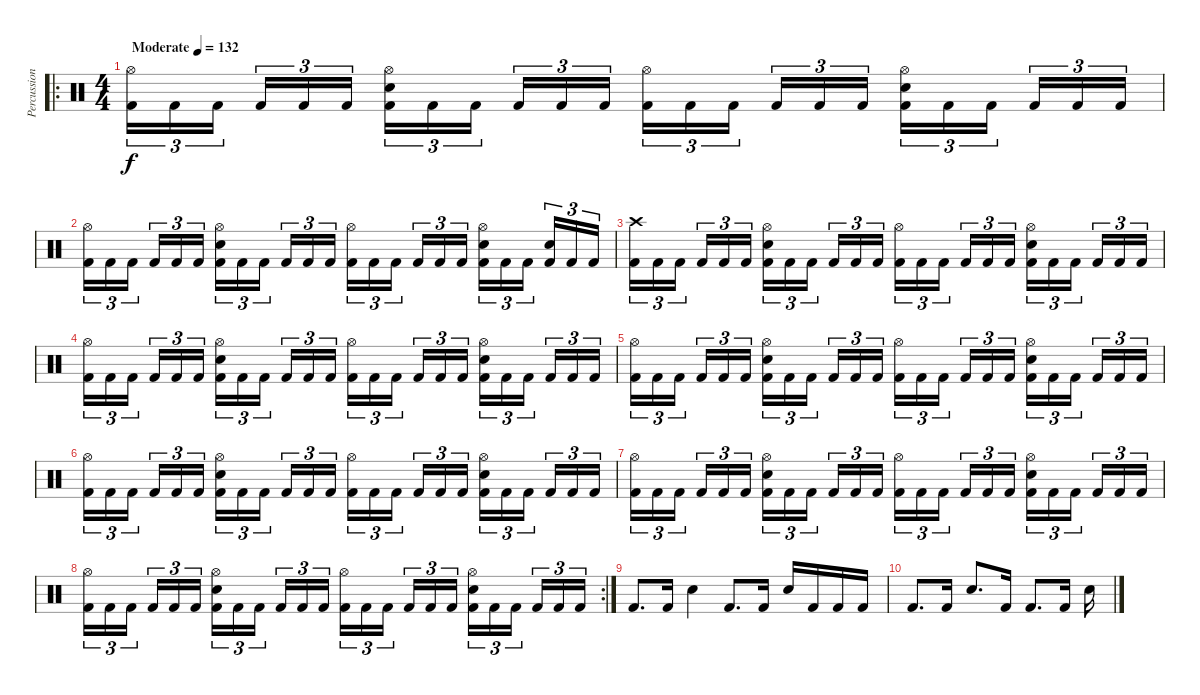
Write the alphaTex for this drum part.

\track ("Percussion" "Percussion") {instrument percussion}
\staff {score}
\articulation defaults
\ro
\ts (4 4)
\tempo (132 "Moderate")
\clef neutral
\ks c
("Hi-Hat (open)" "Kick (hit) 2").16{tu (3 2) dy f} "Kick (hit) 2".16{tu (3 2)} "Kick (hit) 2".16{tu (3 2) beam splitsecondary} "Kick (hit) 2".16{tu (3 2)} "Kick (hit) 2".16{tu (3 2)} "Kick (hit) 2".16{tu (3 2)} ("Hi-Hat (open)" "Electric Snare (hit)" "Kick (hit) 2").16{tu (3 2)} "Kick (hit) 2".16{tu (3 2)} "Kick (hit) 2".16{tu (3 2) beam splitsecondary} "Kick (hit) 2".16{tu (3 2)} "Kick (hit) 2".16{tu (3 2)} "Kick (hit) 2".16{tu (3 2)} ("Hi-Hat (open)" "Kick (hit) 2").16{tu (3 2)} "Kick (hit) 2".16{tu (3 2)} "Kick (hit) 2".16{tu (3 2) beam splitsecondary} "Kick (hit) 2".16{tu (3 2)} "Kick (hit) 2".16{tu (3 2)} "Kick (hit) 2".16{tu (3 2)} ("Hi-Hat (open)" "Electric Snare (hit)" "Kick (hit) 2").16{tu (3 2)} "Kick (hit) 2".16{tu (3 2)} "Kick (hit) 2".16{tu (3 2) beam splitsecondary} "Kick (hit) 2".16{tu (3 2)} "Kick (hit) 2".16{tu (3 2)} "Kick (hit) 2".16{tu (3 2)} |
("Hi-Hat (open)" "Kick (hit) 2").16{tu (3 2)} "Kick (hit) 2".16{tu (3 2)} "Kick (hit) 2".16{tu (3 2) beam splitsecondary} "Kick (hit) 2".16{tu (3 2)} "Kick (hit) 2".16{tu (3 2)} "Kick (hit) 2".16{tu (3 2)} ("Hi-Hat (open)" "Electric Snare (hit)" "Kick (hit) 2").16{tu (3 2)} "Kick (hit) 2".16{tu (3 2)} "Kick (hit) 2".16{tu (3 2) beam splitsecondary} "Kick (hit) 2".16{tu (3 2)} "Kick (hit) 2".16{tu (3 2)} "Kick (hit) 2".16{tu (3 2)} ("Hi-Hat (open)" "Kick (hit) 2").16{tu (3 2)} "Kick (hit) 2".16{tu (3 2)} "Kick (hit) 2".16{tu (3 2) beam splitsecondary} "Kick (hit) 2".16{tu (3 2)} "Kick (hit) 2".16{tu (3 2)} "Kick (hit) 2".16{tu (3 2)} ("Hi-Hat (open)" "Electric Snare (hit)" "Kick (hit) 2").16{tu (3 2)} "Kick (hit) 2".16{tu (3 2)} "Kick (hit) 2".16{tu (3 2) beam splitsecondary} ("Electric Snare (hit)" "Kick (hit) 2").16{tu (3 2)} "Kick (hit) 2".16{tu (3 2)} "Kick (hit) 2".16{tu (3 2)} |
("Crash high (hit)" "Kick (hit) 2").16{tu (3 2)} "Kick (hit) 2".16{tu (3 2)} "Kick (hit) 2".16{tu (3 2) beam splitsecondary} "Kick (hit) 2".16{tu (3 2)} "Kick (hit) 2".16{tu (3 2)} "Kick (hit) 2".16{tu (3 2)} ("Hi-Hat (open)" "Electric Snare (hit)" "Kick (hit) 2").16{tu (3 2)} "Kick (hit) 2".16{tu (3 2)} "Kick (hit) 2".16{tu (3 2) beam splitsecondary} "Kick (hit) 2".16{tu (3 2)} "Kick (hit) 2".16{tu (3 2)} "Kick (hit) 2".16{tu (3 2)} ("Hi-Hat (open)" "Kick (hit) 2").16{tu (3 2)} "Kick (hit) 2".16{tu (3 2)} "Kick (hit) 2".16{tu (3 2) beam splitsecondary} "Kick (hit) 2".16{tu (3 2)} "Kick (hit) 2".16{tu (3 2)} "Kick (hit) 2".16{tu (3 2)} ("Hi-Hat (open)" "Electric Snare (hit)" "Kick (hit) 2").16{tu (3 2)} "Kick (hit) 2".16{tu (3 2)} "Kick (hit) 2".16{tu (3 2) beam splitsecondary} "Kick (hit) 2".16{tu (3 2)} "Kick (hit) 2".16{tu (3 2)} "Kick (hit) 2".16{tu (3 2)} |
("Hi-Hat (open)" "Kick (hit) 2").16{tu (3 2)} "Kick (hit) 2".16{tu (3 2)} "Kick (hit) 2".16{tu (3 2) beam splitsecondary} "Kick (hit) 2".16{tu (3 2)} "Kick (hit) 2".16{tu (3 2)} "Kick (hit) 2".16{tu (3 2)} ("Hi-Hat (open)" "Electric Snare (hit)" "Kick (hit) 2").16{tu (3 2)} "Kick (hit) 2".16{tu (3 2)} "Kick (hit) 2".16{tu (3 2) beam splitsecondary} "Kick (hit) 2".16{tu (3 2)} "Kick (hit) 2".16{tu (3 2)} "Kick (hit) 2".16{tu (3 2)} ("Hi-Hat (open)" "Kick (hit) 2").16{tu (3 2)} "Kick (hit) 2".16{tu (3 2)} "Kick (hit) 2".16{tu (3 2) beam splitsecondary} "Kick (hit) 2".16{tu (3 2)} "Kick (hit) 2".16{tu (3 2)} "Kick (hit) 2".16{tu (3 2)} ("Hi-Hat (open)" "Electric Snare (hit)" "Kick (hit) 2").16{tu (3 2)} "Kick (hit) 2".16{tu (3 2)} "Kick (hit) 2".16{tu (3 2) beam splitsecondary} "Kick (hit) 2".16{tu (3 2)} "Kick (hit) 2".16{tu (3 2)} "Kick (hit) 2".16{tu (3 2)} |
("Hi-Hat (open)" "Kick (hit) 2").16{tu (3 2)} "Kick (hit) 2".16{tu (3 2)} "Kick (hit) 2".16{tu (3 2) beam splitsecondary} "Kick (hit) 2".16{tu (3 2)} "Kick (hit) 2".16{tu (3 2)} "Kick (hit) 2".16{tu (3 2)} ("Hi-Hat (open)" "Electric Snare (hit)" "Kick (hit) 2").16{tu (3 2)} "Kick (hit) 2".16{tu (3 2)} "Kick (hit) 2".16{tu (3 2) beam splitsecondary} "Kick (hit) 2".16{tu (3 2)} "Kick (hit) 2".16{tu (3 2)} "Kick (hit) 2".16{tu (3 2)} ("Hi-Hat (open)" "Kick (hit) 2").16{tu (3 2)} "Kick (hit) 2".16{tu (3 2)} "Kick (hit) 2".16{tu (3 2) beam splitsecondary} "Kick (hit) 2".16{tu (3 2)} "Kick (hit) 2".16{tu (3 2)} "Kick (hit) 2".16{tu (3 2)} ("Hi-Hat (open)" "Electric Snare (hit)" "Kick (hit) 2").16{tu (3 2)} "Kick (hit) 2".16{tu (3 2)} "Kick (hit) 2".16{tu (3 2) beam splitsecondary} "Kick (hit) 2".16{tu (3 2)} "Kick (hit) 2".16{tu (3 2)} "Kick (hit) 2".16{tu (3 2)} |
("Hi-Hat (open)" "Kick (hit) 2").16{tu (3 2)} "Kick (hit) 2".16{tu (3 2)} "Kick (hit) 2".16{tu (3 2) beam splitsecondary} "Kick (hit) 2".16{tu (3 2)} "Kick (hit) 2".16{tu (3 2)} "Kick (hit) 2".16{tu (3 2)} ("Hi-Hat (open)" "Electric Snare (hit)" "Kick (hit) 2").16{tu (3 2)} "Kick (hit) 2".16{tu (3 2)} "Kick (hit) 2".16{tu (3 2) beam splitsecondary} "Kick (hit) 2".16{tu (3 2)} "Kick (hit) 2".16{tu (3 2)} "Kick (hit) 2".16{tu (3 2)} ("Hi-Hat (open)" "Kick (hit) 2").16{tu (3 2)} "Kick (hit) 2".16{tu (3 2)} "Kick (hit) 2".16{tu (3 2) beam splitsecondary} "Kick (hit) 2".16{tu (3 2)} "Kick (hit) 2".16{tu (3 2)} "Kick (hit) 2".16{tu (3 2)} ("Hi-Hat (open)" "Electric Snare (hit)" "Kick (hit) 2").16{tu (3 2)} "Kick (hit) 2".16{tu (3 2)} "Kick (hit) 2".16{tu (3 2) beam splitsecondary} "Kick (hit) 2".16{tu (3 2)} "Kick (hit) 2".16{tu (3 2)} "Kick (hit) 2".16{tu (3 2)} |
("Hi-Hat (open)" "Kick (hit) 2").16{tu (3 2)} "Kick (hit) 2".16{tu (3 2)} "Kick (hit) 2".16{tu (3 2) beam splitsecondary} "Kick (hit) 2".16{tu (3 2)} "Kick (hit) 2".16{tu (3 2)} "Kick (hit) 2".16{tu (3 2)} ("Hi-Hat (open)" "Electric Snare (hit)" "Kick (hit) 2").16{tu (3 2)} "Kick (hit) 2".16{tu (3 2)} "Kick (hit) 2".16{tu (3 2) beam splitsecondary} "Kick (hit) 2".16{tu (3 2)} "Kick (hit) 2".16{tu (3 2)} "Kick (hit) 2".16{tu (3 2)} ("Hi-Hat (open)" "Kick (hit) 2").16{tu (3 2)} "Kick (hit) 2".16{tu (3 2)} "Kick (hit) 2".16{tu (3 2) beam splitsecondary} "Kick (hit) 2".16{tu (3 2)} "Kick (hit) 2".16{tu (3 2)} "Kick (hit) 2".16{tu (3 2)} ("Hi-Hat (open)" "Electric Snare (hit)" "Kick (hit) 2").16{tu (3 2)} "Kick (hit) 2".16{tu (3 2)} "Kick (hit) 2".16{tu (3 2) beam splitsecondary} "Kick (hit) 2".16{tu (3 2)} "Kick (hit) 2".16{tu (3 2)} "Kick (hit) 2".16{tu (3 2)} |
\rc 2
("Hi-Hat (open)" "Kick (hit) 2").16{tu (3 2)} "Kick (hit) 2".16{tu (3 2)} "Kick (hit) 2".16{tu (3 2) beam splitsecondary} "Kick (hit) 2".16{tu (3 2)} "Kick (hit) 2".16{tu (3 2)} "Kick (hit) 2".16{tu (3 2)} ("Hi-Hat (open)" "Electric Snare (hit)" "Kick (hit) 2").16{tu (3 2)} "Kick (hit) 2".16{tu (3 2)} "Kick (hit) 2".16{tu (3 2) beam splitsecondary} "Kick (hit) 2".16{tu (3 2)} "Kick (hit) 2".16{tu (3 2)} "Kick (hit) 2".16{tu (3 2)} ("Hi-Hat (open)" "Kick (hit) 2").16{tu (3 2)} "Kick (hit) 2".16{tu (3 2)} "Kick (hit) 2".16{tu (3 2) beam splitsecondary} "Kick (hit) 2".16{tu (3 2)} "Kick (hit) 2".16{tu (3 2)} "Kick (hit) 2".16{tu (3 2)} ("Hi-Hat (open)" "Electric Snare (hit)" "Kick (hit) 2").16{tu (3 2)} "Kick (hit) 2".16{tu (3 2)} "Kick (hit) 2".16{tu (3 2) beam splitsecondary} "Kick (hit) 2".16{tu (3 2)} "Kick (hit) 2".16{tu (3 2)} "Kick (hit) 2".16{tu (3 2)} |
"Kick (hit) 2".8{d} "Kick (hit) 2".16 "Electric Snare (hit)".4 "Kick (hit) 2".8{d} "Kick (hit) 2".16 "Electric Snare (hit)".16 "Kick (hit) 2".16 "Kick (hit) 2".16 "Kick (hit) 2".16 |
"Kick (hit) 2".8{d} "Kick (hit) 2".16 "Electric Snare (hit)".8{d} "Kick (hit) 2".16 "Kick (hit) 2".8{d} "Kick (hit) 2".16 "Electric Snare (hit)".16
